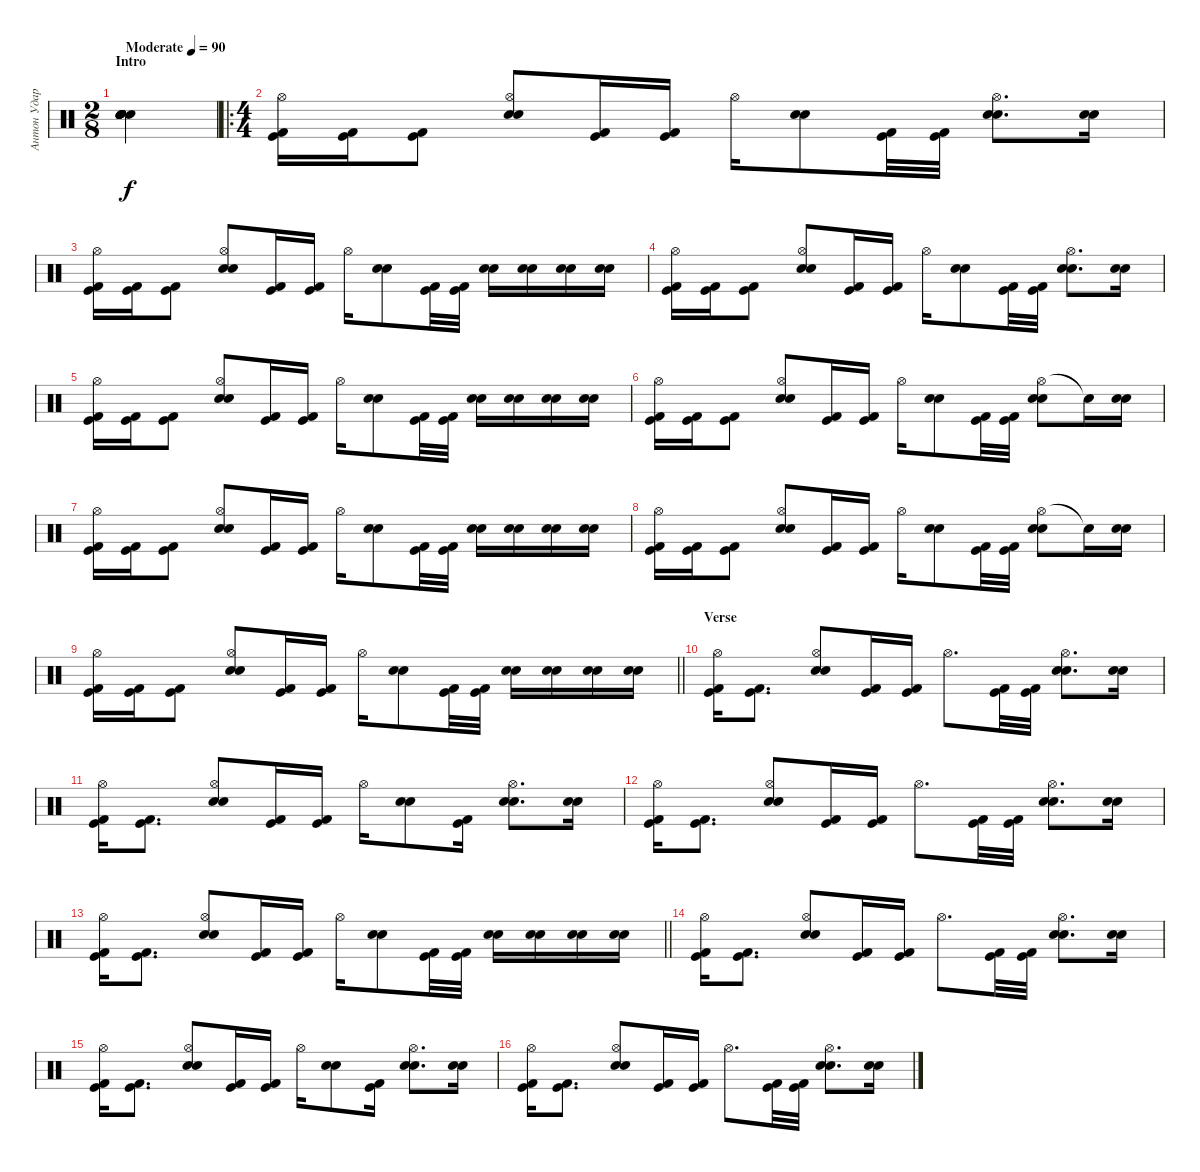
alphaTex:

\track ("Антон Ударные" "Антон Удар") {instrument percussion}
\staff {score}
\articulation defaults
\ts (2 8)
\section ("" "Intro")
\tempo (90 "Moderate")
\clef neutral
\ks c
("Snare (hit)" "Snare (hit)" "Snare (hit)" "Snare (hit)" "Snare (hit)" "Snare (hit)").4{dy f} |
\ro
\ts (4 4)
("Hi-Hat (open)" "Kick (hit) 2" "Kick (hit)").16 ("Kick (hit) 2" "Kick (hit)").16 ("Kick (hit) 2" "Kick (hit)").8 ("Hi-Hat (open)" "Electric Snare (hit)" "Snare (hit) 2").8 ("Kick (hit) 2" "Kick (hit)").16 ("Kick (hit) 2" "Kick (hit)").16 "Hi-Hat (open)".16 ("Electric Snare (hit)" "Snare (hit) 2").8 ("Kick (hit) 2" "Kick (hit)").32 ("Kick (hit) 2" "Kick (hit)").32 ("Hi-Hat (open)" "Electric Snare (hit)" "Snare (hit) 2").8{d} ("Electric Snare (hit)" "Snare (hit) 2").16 |
("Hi-Hat (open)" "Kick (hit) 2" "Kick (hit)").16 ("Kick (hit) 2" "Kick (hit)").16 ("Kick (hit) 2" "Kick (hit)").8 ("Hi-Hat (open)" "Electric Snare (hit)" "Snare (hit) 2").8 ("Kick (hit) 2" "Kick (hit)").16 ("Kick (hit) 2" "Kick (hit)").16 "Hi-Hat (open)".16 ("Electric Snare (hit)" "Snare (hit) 2").8 ("Kick (hit) 2" "Kick (hit)").32 ("Kick (hit) 2" "Kick (hit)").32 ("Electric Snare (hit)" "Snare (hit) 2").16 ("Electric Snare (hit)" "Snare (hit) 2").16 ("Electric Snare (hit)" "Snare (hit) 2").16 ("Electric Snare (hit)" "Snare (hit) 2").16 |
("Hi-Hat (open)" "Kick (hit) 2" "Kick (hit)").16 ("Kick (hit) 2" "Kick (hit)").16 ("Kick (hit) 2" "Kick (hit)").8 ("Hi-Hat (open)" "Electric Snare (hit)" "Snare (hit) 2").8 ("Kick (hit) 2" "Kick (hit)").16 ("Kick (hit) 2" "Kick (hit)").16 "Hi-Hat (open)".16 ("Electric Snare (hit)" "Snare (hit) 2").8 ("Kick (hit) 2" "Kick (hit)").32 ("Kick (hit) 2" "Kick (hit)").32 ("Hi-Hat (open)" "Electric Snare (hit)" "Snare (hit) 2").8{d} ("Electric Snare (hit)" "Snare (hit) 2").16 |
("Hi-Hat (open)" "Kick (hit) 2" "Kick (hit)").16 ("Kick (hit) 2" "Kick (hit)").16 ("Kick (hit) 2" "Kick (hit)").8 ("Hi-Hat (open)" "Electric Snare (hit)" "Snare (hit) 2").8 ("Kick (hit) 2" "Kick (hit)").16 ("Kick (hit) 2" "Kick (hit)").16 "Hi-Hat (open)".16 ("Electric Snare (hit)" "Snare (hit) 2").8 ("Kick (hit) 2" "Kick (hit)").32 ("Kick (hit) 2" "Kick (hit)").32 ("Electric Snare (hit)" "Snare (hit) 2").16 ("Electric Snare (hit)" "Snare (hit) 2").16 ("Electric Snare (hit)" "Snare (hit) 2").16 ("Electric Snare (hit)" "Snare (hit) 2").16 |
("Hi-Hat (open)" "Kick (hit) 2" "Kick (hit)").16 ("Kick (hit) 2" "Kick (hit)").16 ("Kick (hit) 2" "Kick (hit)").8 ("Hi-Hat (open)" "Electric Snare (hit)" "Snare (hit) 2").8 ("Kick (hit) 2" "Kick (hit)").16 ("Kick (hit) 2" "Kick (hit)").16 "Hi-Hat (open)".16 ("Electric Snare (hit)" "Snare (hit) 2").8 ("Kick (hit) 2" "Kick (hit)").32 ("Kick (hit) 2" "Kick (hit)").32 ("Hi-Hat (open)" "Electric Snare (hit)" "Snare (hit) 2").8 "Snare (hit)"{t}.16 ("Electric Snare (hit)" "Snare (hit) 2").16 |
("Hi-Hat (open)" "Kick (hit) 2" "Kick (hit)").16 ("Kick (hit) 2" "Kick (hit)").16 ("Kick (hit) 2" "Kick (hit)").8 ("Hi-Hat (open)" "Electric Snare (hit)" "Snare (hit) 2").8 ("Kick (hit) 2" "Kick (hit)").16 ("Kick (hit) 2" "Kick (hit)").16 "Hi-Hat (open)".16 ("Electric Snare (hit)" "Snare (hit) 2").8 ("Kick (hit) 2" "Kick (hit)").32 ("Kick (hit) 2" "Kick (hit)").32 ("Electric Snare (hit)" "Snare (hit) 2").16 ("Electric Snare (hit)" "Snare (hit) 2").16 ("Electric Snare (hit)" "Snare (hit) 2").16 ("Electric Snare (hit)" "Snare (hit) 2").16 |
("Hi-Hat (open)" "Kick (hit) 2" "Kick (hit)").16 ("Kick (hit) 2" "Kick (hit)").16 ("Kick (hit) 2" "Kick (hit)").8 ("Hi-Hat (open)" "Electric Snare (hit)" "Snare (hit) 2").8 ("Kick (hit) 2" "Kick (hit)").16 ("Kick (hit) 2" "Kick (hit)").16 "Hi-Hat (open)".16 ("Electric Snare (hit)" "Snare (hit) 2").8 ("Kick (hit) 2" "Kick (hit)").32 ("Kick (hit) 2" "Kick (hit)").32 ("Hi-Hat (open)" "Electric Snare (hit)" "Snare (hit) 2").8 "Snare (hit)"{t}.16 ("Electric Snare (hit)" "Snare (hit) 2").16 |
\barLineRight lightlight
("Hi-Hat (open)" "Kick (hit) 2" "Kick (hit)").16 ("Kick (hit) 2" "Kick (hit)").16 ("Kick (hit) 2" "Kick (hit)").8 ("Hi-Hat (open)" "Electric Snare (hit)" "Snare (hit) 2").8 ("Kick (hit) 2" "Kick (hit)").16 ("Kick (hit) 2" "Kick (hit)").16 "Hi-Hat (open)".16 ("Electric Snare (hit)" "Snare (hit) 2").8 ("Kick (hit) 2" "Kick (hit)").32 ("Kick (hit) 2" "Kick (hit)").32 ("Electric Snare (hit)" "Snare (hit) 2").16 ("Electric Snare (hit)" "Snare (hit) 2").16 ("Electric Snare (hit)" "Snare (hit) 2").16 ("Electric Snare (hit)" "Snare (hit) 2").16 |
\section ("" "Verse")
("Hi-Hat (open)" "Kick (hit) 2" "Kick (hit)").16 ("Kick (hit) 2" "Kick (hit)").8{d} ("Hi-Hat (open)" "Electric Snare (hit)" "Snare (hit) 2").8 ("Kick (hit) 2" "Kick (hit)").16 ("Kick (hit) 2" "Kick (hit)").16 "Hi-Hat (open)".8{d} ("Kick (hit) 2" "Kick (hit)").32 ("Kick (hit) 2" "Kick (hit)").32 ("Hi-Hat (open)" "Electric Snare (hit)" "Snare (hit) 2").8{d} ("Electric Snare (hit)" "Snare (hit) 2").16 |
("Hi-Hat (open)" "Kick (hit) 2" "Kick (hit)").16 ("Kick (hit) 2" "Kick (hit)").8{d} ("Hi-Hat (open)" "Electric Snare (hit)" "Snare (hit) 2").8 ("Kick (hit) 2" "Kick (hit)").16 ("Kick (hit) 2" "Kick (hit)").16 "Hi-Hat (open)".16 ("Electric Snare (hit)" "Snare (hit) 2").8 ("Kick (hit) 2" "Kick (hit)").16 ("Hi-Hat (open)" "Electric Snare (hit)" "Snare (hit) 2").8{d} ("Electric Snare (hit)" "Snare (hit) 2").16 |
("Hi-Hat (open)" "Kick (hit) 2" "Kick (hit)").16 ("Kick (hit) 2" "Kick (hit)").8{d} ("Hi-Hat (open)" "Electric Snare (hit)" "Snare (hit) 2").8 ("Kick (hit) 2" "Kick (hit)").16 ("Kick (hit) 2" "Kick (hit)").16 "Hi-Hat (open)".8{d} ("Kick (hit) 2" "Kick (hit)").32 ("Kick (hit) 2" "Kick (hit)").32 ("Hi-Hat (open)" "Electric Snare (hit)" "Snare (hit) 2").8{d} ("Electric Snare (hit)" "Snare (hit) 2").16 |
\barLineRight lightlight
("Hi-Hat (open)" "Kick (hit) 2" "Kick (hit)").16 ("Kick (hit) 2" "Kick (hit)").8{d} ("Hi-Hat (open)" "Electric Snare (hit)" "Snare (hit) 2").8 ("Kick (hit) 2" "Kick (hit)").16 ("Kick (hit) 2" "Kick (hit)").16 "Hi-Hat (open)".16 ("Electric Snare (hit)" "Snare (hit) 2").8 ("Kick (hit) 2" "Kick (hit)").32 ("Kick (hit) 2" "Kick (hit)").32 ("Electric Snare (hit)" "Snare (hit) 2").16 ("Electric Snare (hit)" "Snare (hit) 2").16 ("Electric Snare (hit)" "Snare (hit) 2").16 ("Electric Snare (hit)" "Snare (hit) 2").16 |
\section ("" "")
("Hi-Hat (open)" "Kick (hit) 2" "Kick (hit)").16 ("Kick (hit) 2" "Kick (hit)").8{d} ("Hi-Hat (open)" "Electric Snare (hit)" "Snare (hit) 2").8 ("Kick (hit) 2" "Kick (hit)").16 ("Kick (hit) 2" "Kick (hit)").16 "Hi-Hat (open)".8{d} ("Kick (hit) 2" "Kick (hit)").32 ("Kick (hit) 2" "Kick (hit)").32 ("Hi-Hat (open)" "Electric Snare (hit)" "Snare (hit) 2").8{d} ("Electric Snare (hit)" "Snare (hit) 2").16 |
("Hi-Hat (open)" "Kick (hit) 2" "Kick (hit)").16 ("Kick (hit) 2" "Kick (hit)").8{d} ("Hi-Hat (open)" "Electric Snare (hit)" "Snare (hit) 2").8 ("Kick (hit) 2" "Kick (hit)").16 ("Kick (hit) 2" "Kick (hit)").16 "Hi-Hat (open)".16 ("Electric Snare (hit)" "Snare (hit) 2").8 ("Kick (hit) 2" "Kick (hit)").16 ("Hi-Hat (open)" "Electric Snare (hit)" "Snare (hit) 2").8{d} ("Electric Snare (hit)" "Snare (hit) 2").16 |
("Hi-Hat (open)" "Kick (hit) 2" "Kick (hit)").16 ("Kick (hit) 2" "Kick (hit)").8{d} ("Hi-Hat (open)" "Electric Snare (hit)" "Snare (hit) 2").8 ("Kick (hit) 2" "Kick (hit)").16 ("Kick (hit) 2" "Kick (hit)").16 "Hi-Hat (open)".8{d} ("Kick (hit) 2" "Kick (hit)").32 ("Kick (hit) 2" "Kick (hit)").32 ("Hi-Hat (open)" "Electric Snare (hit)" "Snare (hit) 2").8{d} ("Electric Snare (hit)" "Snare (hit) 2").16
